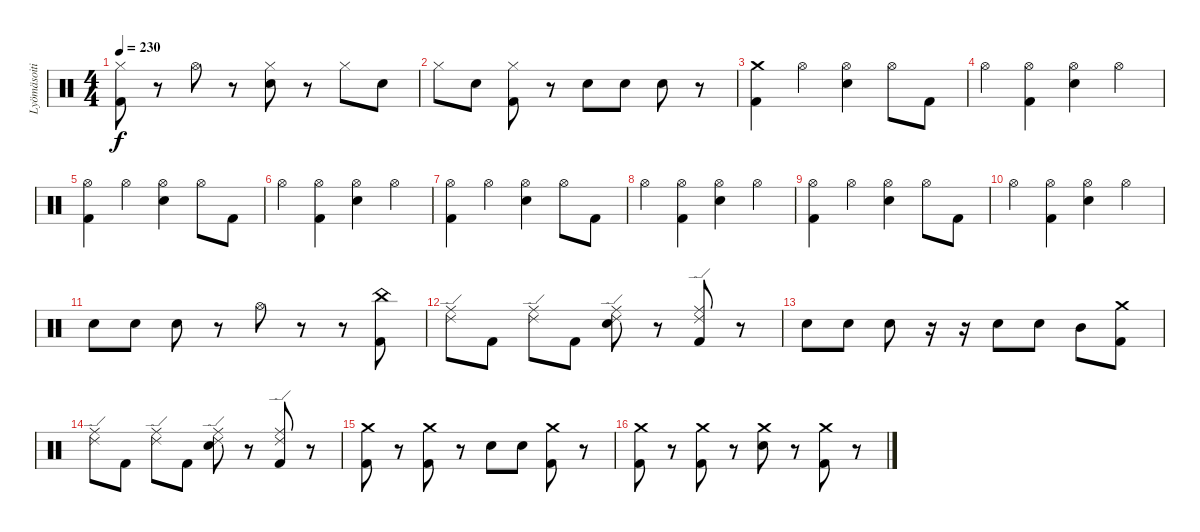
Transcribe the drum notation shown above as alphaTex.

\track ("Lyömäsoitin" "Lyömäsoiti") {instrument percussion}
\staff {score}
\articulation defaults
\ts (4 4)
\tempo 230
\clef neutral
\ks c
("Hi-Hat (closed)" "Kick (hit) 2").8{dy f} r.8 "Hi-Hat (open)".8 r.8 ("Hi-Hat (closed)" "Electric Snare (hit)").8 r.8 "Hi-Hat (closed)".8 "Electric Snare (hit)".8 |
"Hi-Hat (closed)".8 "Electric Snare (hit)".8 ("Hi-Hat (closed)" "Kick (hit) 2").8 r.8 "Electric Snare (hit)".8 "Electric Snare (hit)".8 "Electric Snare (hit)".8 r.8 |
("Crash medium (hit)" "Kick (hit) 2").4 "Hi-Hat (open)".4 ("Hi-Hat (open)" "Snare (hit) 2").4 "Hi-Hat (open)".8 "Kick (hit) 2".8 |
"Hi-Hat (open)".4 ("Hi-Hat (open)" "Kick (hit) 2").4 ("Hi-Hat (open)" "Snare (hit) 2").4 "Hi-Hat (open)".4 |
("Hi-Hat (open)" "Kick (hit) 2").4 "Hi-Hat (open)".4 ("Hi-Hat (open)" "Snare (hit) 2").4 "Hi-Hat (open)".8 "Kick (hit) 2".8 |
"Hi-Hat (open)".4 ("Hi-Hat (open)" "Kick (hit) 2").4 ("Hi-Hat (open)" "Snare (hit) 2").4 "Hi-Hat (open)".4 |
("Hi-Hat (open)" "Kick (hit) 2").4 "Hi-Hat (open)".4 ("Hi-Hat (open)" "Snare (hit) 2").4 "Hi-Hat (open)".8 "Kick (hit) 2".8 |
"Hi-Hat (open)".4 ("Hi-Hat (open)" "Kick (hit) 2").4 ("Hi-Hat (open)" "Snare (hit) 2").4 "Hi-Hat (open)".4 |
("Hi-Hat (open)" "Kick (hit) 2").4 "Hi-Hat (open)".4 ("Hi-Hat (open)" "Snare (hit) 2").4 "Hi-Hat (open)".8 "Kick (hit) 2".8 |
"Hi-Hat (open)".4 ("Hi-Hat (open)" "Kick (hit) 2").4 ("Hi-Hat (open)" "Snare (hit) 2").4 "Hi-Hat (open)".4 |
"Electric Snare (hit)".8 "Electric Snare (hit)".8 "Electric Snare (hit)".8 r.8 "Hi-Hat (open)".8 r.8 r.8 ("China (hit)" "Kick (hit) 2").8 |
("Ride (middle)" "Ride (edge) 2").8 "Kick (hit) 2".8 ("Ride (middle)" "Ride (edge) 2").8 "Kick (hit) 2".8 ("Ride (middle)" "Ride (edge) 2" "Electric Snare (hit)").8 r.8 ("Ride (middle)" "Ride (edge) 2" "Kick (hit) 2").8 r.8 |
"Electric Snare (hit)".8 "Electric Snare (hit)".8 "Electric Snare (hit)".8 r.16 r.16 "Electric Snare (hit)".8 "Electric Snare (hit)".8 "Mid Tom (hit)".8 ("Crash medium (hit)" "Kick (hit) 2").8 |
("Ride (middle)" "Ride (edge) 2").8 "Kick (hit) 2".8 ("Ride (middle)" "Ride (edge) 2").8 "Kick (hit) 2".8 ("Ride (middle)" "Ride (edge) 2" "Electric Snare (hit)").8 r.8 ("Ride (middle)" "Ride (edge) 2" "Kick (hit) 2").8 r.8 |
("Crash medium (hit)" "Kick (hit) 2").8 r.8 ("Crash medium (hit)" "Kick (hit) 2").8 r.8 "Electric Snare (hit)".8 "Electric Snare (hit)".8 ("Crash medium (hit)" "Kick (hit) 2").8 r.8 |
("Crash medium (hit)" "Kick (hit) 2").8 r.8 ("Crash medium (hit)" "Kick (hit) 2").8 r.8 ("Crash medium (hit)" "Electric Snare (hit)").8 r.8 ("Crash medium (hit)" "Kick (hit) 2").8 r.8
